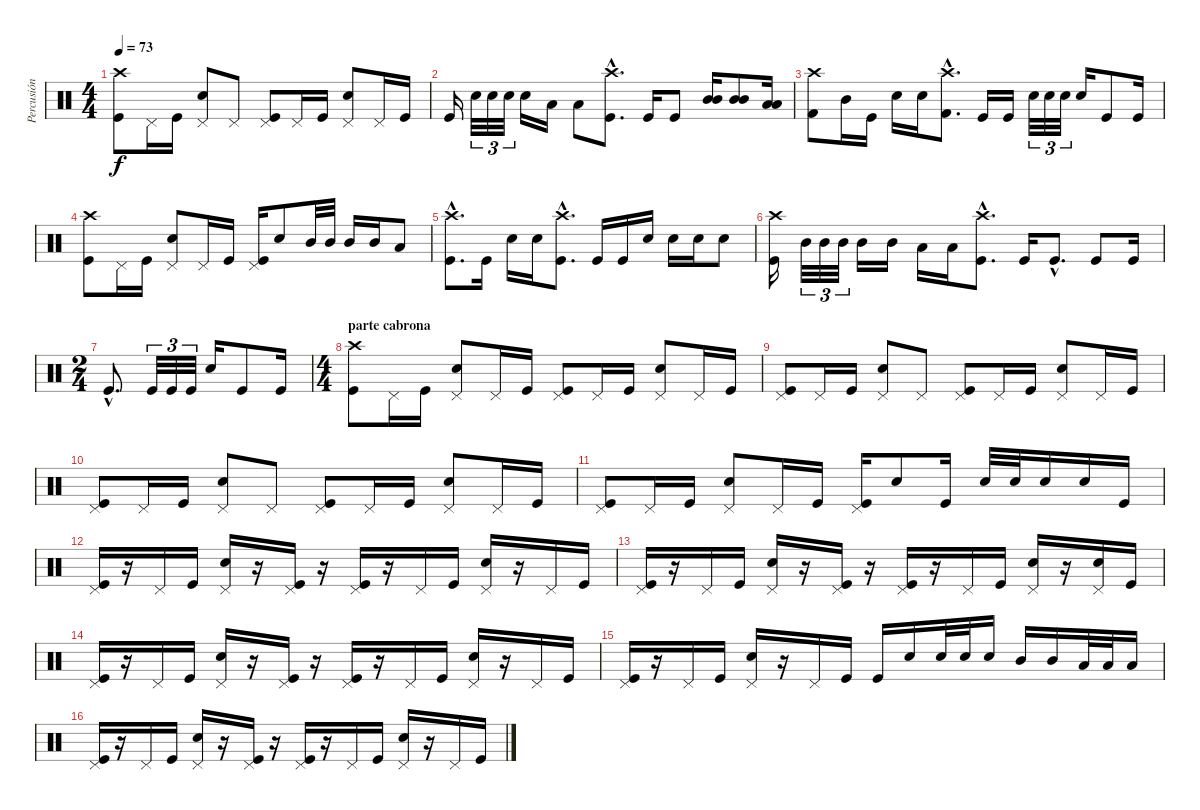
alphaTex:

\track ("Percusión" "Percusión") {instrument percussion}
\staff {score}
\articulation defaults
\ts (4 4)
\tempo 73
\clef neutral
\ks c
("Crash high (hit)" "Kick (hit)").8{dy f} "Pedal Hi-Hat (hit)".16 "Kick (hit)".16 ("Pedal Hi-Hat (hit)" "Electric Snare (hit)").8 "Pedal Hi-Hat (hit)".8 ("Pedal Hi-Hat (hit)" "Kick (hit)").8 "Pedal Hi-Hat (hit)".16 "Kick (hit)".16 ("Pedal Hi-Hat (hit)" "Electric Snare (hit)").8 "Pedal Hi-Hat (hit)".16 "Kick (hit)".16 |
"Kick (hit)".16 "Electric Snare (hit)".32{tu (3 2)} "Electric Snare (hit)".32{tu (3 2)} "Electric Snare (hit)".32{tu (3 2)} "Electric Snare (hit)".16 "Low Tom (hit)".16 "Low Tom (hit)".8 ("Crash high (hit)"{hac} "Kick (hit)"{hac}).8{d} "Kick (hit)".16 "Kick (hit)".8 ("Mid Tom (hit)" "Mid Tom (hit)").16 ("Mid Tom (hit)" "Mid Tom (hit)").8 ("Low Tom (hit)" "Low Tom (hit)").16 |
("Crash high (hit)" "Kick (hit) 2").8 "Mid Tom (hit)".16 "Kick (hit)".16 "Electric Snare (hit)".16 "Electric Snare (hit)".16 ("Crash high (hit)"{hac} "Kick (hit) 2"{hac}).8{d} "Kick (hit)".16 "Kick (hit)".16 "Electric Snare (hit)".32{tu (3 2)} "Electric Snare (hit)".32{tu (3 2)} "Electric Snare (hit)".32{tu (3 2)} "Electric Snare (hit)".16 "Kick (hit)".8 "Kick (hit)".16 |
("Crash high (hit)" "Kick (hit)").8 "Pedal Hi-Hat (hit)".16 "Kick (hit)".16 ("Pedal Hi-Hat (hit)" "Electric Snare (hit)").8 "Pedal Hi-Hat (hit)".16 "Kick (hit)".16 ("Pedal Hi-Hat (hit)" "Kick (hit)").16 "Electric Snare (hit)".8 "Mid Tom (hit)".32 "Mid Tom (hit)".32 "Mid Tom (hit)".16 "Mid Tom (hit)".16 "Low Tom (hit)".8 |
("Crash high (hit)"{hac} "Kick (hit)"{hac}).8{d} "Kick (hit)".16 "Electric Snare (hit)".16 "Electric Snare (hit)".16 ("Crash high (hit)"{hac} "Kick (hit)"{hac}).8{d} "Kick (hit)".16 "Kick (hit)".16 "Electric Snare (hit)".16 "Electric Snare (hit)".16 "Electric Snare (hit)".16 "Electric Snare (hit)".8 |
("Crash high (hit)" "Kick (hit)").16 "Mid Tom (hit)".32{tu (3 2)} "Mid Tom (hit)".32{tu (3 2)} "Mid Tom (hit)".32{tu (3 2)} "Mid Tom (hit)".16 "Mid Tom (hit)".16 "Low Tom (hit)".16 "Low Tom (hit)".16 ("Crash high (hit)"{hac} "Kick (hit)"{hac}).8{d} "Kick (hit)".16 "Kick (hit)"{hac}.8{d} "Kick (hit)".8 "Kick (hit)".16 |
\ts (2 4)
"Kick (hit)"{hac}.8{d} "Kick (hit)".32{tu (3 2)} "Kick (hit)".32{tu (3 2)} "Kick (hit)".32{tu (3 2)} "Electric Snare (hit)".16 "Kick (hit)".8 "Kick (hit)".16 |
\ts (4 4)
\section ("" "parte cabrona")
("Crash high (hit)" "Kick (hit)").8 "Pedal Hi-Hat (hit)".16 "Kick (hit)".16 ("Pedal Hi-Hat (hit)" "Electric Snare (hit)").8 "Pedal Hi-Hat (hit)".16 "Kick (hit)".16 ("Pedal Hi-Hat (hit)" "Kick (hit)").8 "Pedal Hi-Hat (hit)".16 "Kick (hit)".16 ("Pedal Hi-Hat (hit)" "Electric Snare (hit)").8 "Pedal Hi-Hat (hit)".16 "Kick (hit)".16 |
("Pedal Hi-Hat (hit)" "Kick (hit)").8 "Pedal Hi-Hat (hit)".16 "Kick (hit)".16 ("Pedal Hi-Hat (hit)" "Electric Snare (hit)").8 "Pedal Hi-Hat (hit)".8 ("Pedal Hi-Hat (hit)" "Kick (hit)").8 "Pedal Hi-Hat (hit)".16 "Kick (hit)".16 ("Pedal Hi-Hat (hit)" "Electric Snare (hit)").8 "Pedal Hi-Hat (hit)".16 "Kick (hit)".16 |
("Pedal Hi-Hat (hit)" "Kick (hit)").8 "Pedal Hi-Hat (hit)".16 "Kick (hit)".16 ("Pedal Hi-Hat (hit)" "Electric Snare (hit)").8 "Pedal Hi-Hat (hit)".8 ("Pedal Hi-Hat (hit)" "Kick (hit)").8 "Pedal Hi-Hat (hit)".16 "Kick (hit)".16 ("Pedal Hi-Hat (hit)" "Electric Snare (hit)").8 "Pedal Hi-Hat (hit)".16 "Kick (hit)".16 |
("Pedal Hi-Hat (hit)" "Kick (hit)").8 "Pedal Hi-Hat (hit)".16 "Kick (hit)".16 ("Pedal Hi-Hat (hit)" "Electric Snare (hit)").8 "Pedal Hi-Hat (hit)".16 "Kick (hit)".16 ("Pedal Hi-Hat (hit)" "Kick (hit)").16 "Electric Snare (hit)".8 "Kick (hit)".16 "Electric Snare (hit)".32 "Electric Snare (hit)".32 "Electric Snare (hit)".16 "Electric Snare (hit)".16 "Kick (hit)".16 |
("Pedal Hi-Hat (hit)" "Kick (hit)").16 r.16 "Pedal Hi-Hat (hit)".16 "Kick (hit)".16 ("Pedal Hi-Hat (hit)" "Electric Snare (hit)").16 r.16 ("Pedal Hi-Hat (hit)" "Kick (hit)").16 r.16 ("Pedal Hi-Hat (hit)" "Kick (hit)").16 r.16 "Pedal Hi-Hat (hit)".16 "Kick (hit)".16 ("Pedal Hi-Hat (hit)" "Electric Snare (hit)").16 r.16 "Pedal Hi-Hat (hit)".16 "Kick (hit)".16 |
("Pedal Hi-Hat (hit)" "Kick (hit)").16 r.16 "Pedal Hi-Hat (hit)".16 "Kick (hit)".16 ("Pedal Hi-Hat (hit)" "Electric Snare (hit)").16 r.16 ("Pedal Hi-Hat (hit)" "Kick (hit)").16 r.16 ("Pedal Hi-Hat (hit)" "Kick (hit)").16 r.16 "Pedal Hi-Hat (hit)".16 "Kick (hit)".16 ("Pedal Hi-Hat (hit)" "Electric Snare (hit)").16 r.16 ("Pedal Hi-Hat (hit)" "Electric Snare (hit)").16 "Kick (hit)".16 |
("Pedal Hi-Hat (hit)" "Kick (hit)").16 r.16 "Pedal Hi-Hat (hit)".16 "Kick (hit)".16 ("Pedal Hi-Hat (hit)" "Electric Snare (hit)").16 r.16 ("Pedal Hi-Hat (hit)" "Kick (hit)").16 r.16 ("Pedal Hi-Hat (hit)" "Kick (hit)").16 r.16 "Pedal Hi-Hat (hit)".16 "Kick (hit)".16 ("Pedal Hi-Hat (hit)" "Electric Snare (hit)").16 r.16 "Pedal Hi-Hat (hit)".16 "Kick (hit)".16 |
("Pedal Hi-Hat (hit)" "Kick (hit)").16 r.16 "Pedal Hi-Hat (hit)".16 "Kick (hit)".16 ("Pedal Hi-Hat (hit)" "Electric Snare (hit)").16 r.16 "Pedal Hi-Hat (hit)".16 "Kick (hit)".16 "Kick (hit)".16 "Electric Snare (hit)".16 "Electric Snare (hit)".32 "Electric Snare (hit)".32 "Electric Snare (hit)".16 "Mid Tom (hit)".16 "Mid Tom (hit)".16 "Low Tom (hit)".32 "Low Tom (hit)".32 "Low Tom (hit)".16 |
("Pedal Hi-Hat (hit)" "Kick (hit)").16 r.16 "Pedal Hi-Hat (hit)".16 "Kick (hit)".16 ("Pedal Hi-Hat (hit)" "Electric Snare (hit)").16 r.16 ("Pedal Hi-Hat (hit)" "Kick (hit)").16 r.16 ("Pedal Hi-Hat (hit)" "Kick (hit)").16 r.16 "Pedal Hi-Hat (hit)".16 "Kick (hit)".16 ("Pedal Hi-Hat (hit)" "Electric Snare (hit)").16 r.16 "Pedal Hi-Hat (hit)".16 "Kick (hit)".16
